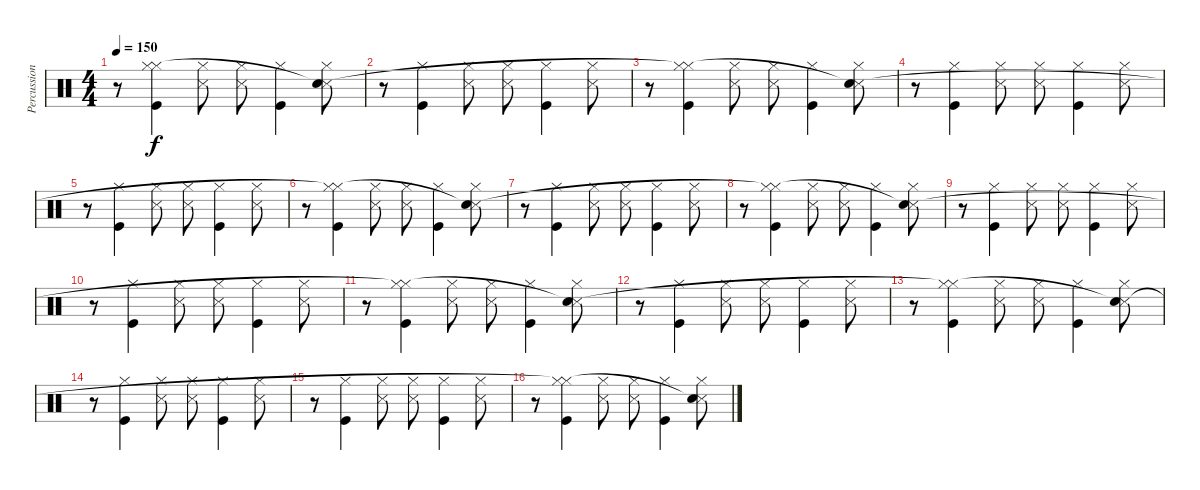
\track ("Percussion" "Percussion") {instrument percussion}
\staff {score}
\articulation defaults
\ts (4 4)
\tempo 150
\clef neutral
\ks c
r.8{dy f} ("Kick (hit)" "Hi-Hat (closed)" "Hi-Hat (closed)"{t}).4 ("Snare (side stick) 3" "Hi-Hat (closed)").8 ("Snare (side stick) 3" "Hi-Hat (closed)").8 ("Kick (hit)" "Hi-Hat (closed)").4 ("Snare (side stick) 3" "Hi-Hat (closed)" "Snare (hit)"{t}).8 |
r.8 ("Kick (hit)" "Hi-Hat (closed)").4 ("Snare (side stick) 3" "Hi-Hat (closed)").8 ("Snare (side stick) 3" "Hi-Hat (closed)").8 ("Kick (hit)" "Hi-Hat (closed)").4 ("Snare (side stick) 3" "Hi-Hat (closed)").8 |
r.8 ("Kick (hit)" "Hi-Hat (closed)" "Hi-Hat (closed)"{t}).4 ("Snare (side stick) 3" "Hi-Hat (closed)").8 ("Snare (side stick) 3" "Hi-Hat (closed)").8 ("Kick (hit)" "Hi-Hat (closed)").4 ("Snare (side stick) 3" "Hi-Hat (closed)" "Snare (hit)"{t}).8 |
r.8 ("Kick (hit)" "Hi-Hat (closed)").4 ("Snare (side stick) 3" "Hi-Hat (closed)").8 ("Snare (side stick) 3" "Hi-Hat (closed)").8 ("Kick (hit)" "Hi-Hat (closed)").4 ("Snare (side stick) 3" "Hi-Hat (closed)").8 |
r.8 ("Kick (hit)" "Hi-Hat (closed)").4 ("Snare (side stick) 3" "Hi-Hat (closed)").8 ("Snare (side stick) 3" "Hi-Hat (closed)").8 ("Kick (hit)" "Hi-Hat (closed)").4 ("Snare (side stick) 3" "Hi-Hat (closed)").8 |
r.8 ("Kick (hit)" "Hi-Hat (closed)" "Hi-Hat (closed)"{t}).4 ("Snare (side stick) 3" "Hi-Hat (closed)").8 ("Snare (side stick) 3" "Hi-Hat (closed)").8 ("Kick (hit)" "Hi-Hat (closed)").4 ("Snare (side stick) 3" "Hi-Hat (closed)" "Snare (hit)"{t}).8 |
r.8 ("Kick (hit)" "Hi-Hat (closed)").4 ("Snare (side stick) 3" "Hi-Hat (closed)").8 ("Snare (side stick) 3" "Hi-Hat (closed)").8 ("Kick (hit)" "Hi-Hat (closed)").4 ("Snare (side stick) 3" "Hi-Hat (closed)").8 |
r.8 ("Kick (hit)" "Hi-Hat (closed)" "Hi-Hat (closed)"{t}).4 ("Snare (side stick) 3" "Hi-Hat (closed)").8 ("Snare (side stick) 3" "Hi-Hat (closed)").8 ("Kick (hit)" "Hi-Hat (closed)").4 ("Snare (side stick) 3" "Hi-Hat (closed)" "Snare (hit)"{t}).8 |
r.8 ("Kick (hit)" "Hi-Hat (closed)").4 ("Snare (side stick) 3" "Hi-Hat (closed)").8 ("Snare (side stick) 3" "Hi-Hat (closed)").8 ("Kick (hit)" "Hi-Hat (closed)").4 ("Snare (side stick) 3" "Hi-Hat (closed)").8 |
r.8 ("Kick (hit)" "Hi-Hat (closed)").4 ("Snare (side stick) 3" "Hi-Hat (closed)").8 ("Snare (side stick) 3" "Hi-Hat (closed)").8 ("Kick (hit)" "Hi-Hat (closed)").4 ("Snare (side stick) 3" "Hi-Hat (closed)").8 |
r.8 ("Kick (hit)" "Hi-Hat (closed)" "Hi-Hat (closed)"{t}).4 ("Snare (side stick) 3" "Hi-Hat (closed)").8 ("Snare (side stick) 3" "Hi-Hat (closed)").8 ("Kick (hit)" "Hi-Hat (closed)").4 ("Snare (side stick) 3" "Hi-Hat (closed)" "Snare (hit)"{t}).8 |
r.8 ("Kick (hit)" "Hi-Hat (closed)").4 ("Snare (side stick) 3" "Hi-Hat (closed)").8 ("Snare (side stick) 3" "Hi-Hat (closed)").8 ("Kick (hit)" "Hi-Hat (closed)").4 ("Snare (side stick) 3" "Hi-Hat (closed)").8 |
r.8 ("Kick (hit)" "Hi-Hat (closed)" "Hi-Hat (closed)"{t}).4 ("Snare (side stick) 3" "Hi-Hat (closed)").8 ("Snare (side stick) 3" "Hi-Hat (closed)").8 ("Kick (hit)" "Hi-Hat (closed)").4 ("Snare (side stick) 3" "Hi-Hat (closed)" "Snare (hit)"{t}).8 |
r.8 ("Kick (hit)" "Hi-Hat (closed)").4 ("Snare (side stick) 3" "Hi-Hat (closed)").8 ("Snare (side stick) 3" "Hi-Hat (closed)").8 ("Kick (hit)" "Hi-Hat (closed)").4 ("Snare (side stick) 3" "Hi-Hat (closed)").8 |
r.8 ("Kick (hit)" "Hi-Hat (closed)").4 ("Snare (side stick) 3" "Hi-Hat (closed)").8 ("Snare (side stick) 3" "Hi-Hat (closed)").8 ("Kick (hit)" "Hi-Hat (closed)").4 ("Snare (side stick) 3" "Hi-Hat (closed)").8 |
r.8 ("Kick (hit)" "Hi-Hat (closed)" "Hi-Hat (closed)"{t}).4 ("Snare (side stick) 3" "Hi-Hat (closed)").8 ("Snare (side stick) 3" "Hi-Hat (closed)").8 ("Kick (hit)" "Hi-Hat (closed)").4 ("Snare (side stick) 3" "Hi-Hat (closed)" "Snare (hit)"{t}).8
